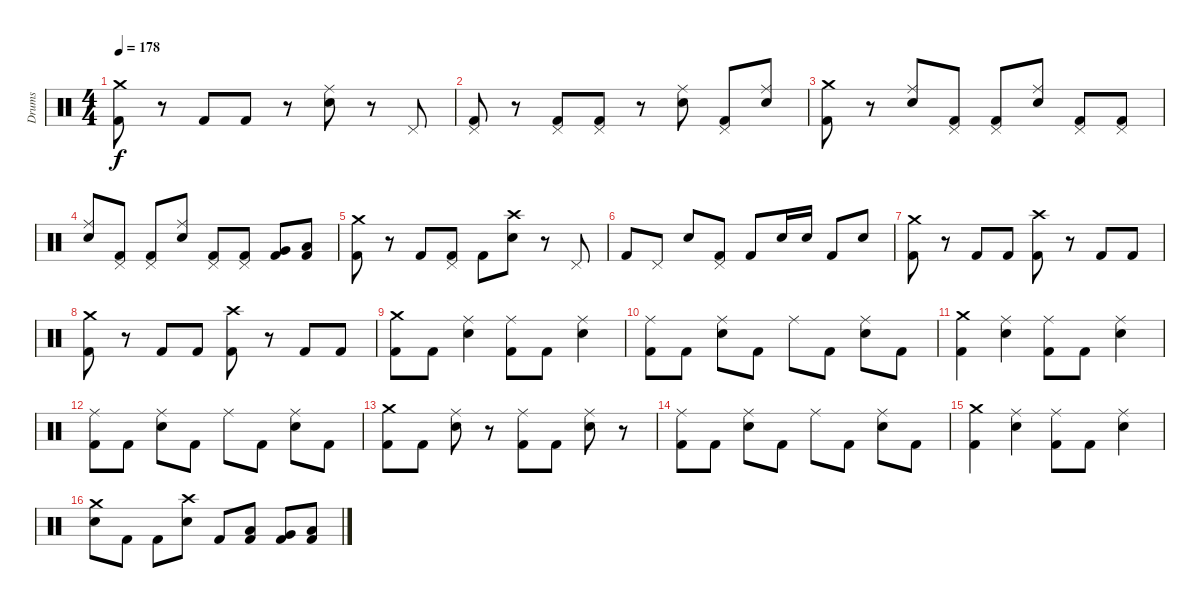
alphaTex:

\track ("Drums" "Drums") {instrument percussion}
\staff {score}
\articulation defaults
\ts (4 4)
\tempo 178
\clef neutral
\ks c
("Crash medium (hit)" "Kick (hit) 2").8{dy f} r.8 "Kick (hit) 2".8 "Kick (hit) 2".8 r.8 ("Ride (middle)" "Electric Snare (hit)").8 r.8 "Pedal Hi-Hat (hit)".8 |
("Pedal Hi-Hat (hit)" "Kick (hit) 2").8 r.8 ("Pedal Hi-Hat (hit)" "Kick (hit) 2").8 ("Pedal Hi-Hat (hit)" "Kick (hit) 2").8 r.8 ("Ride (middle)" "Electric Snare (hit)").8 ("Pedal Hi-Hat (hit)" "Kick (hit) 2").8 ("Ride (middle)" "Electric Snare (hit)").8 |
("Crash medium (hit)" "Kick (hit) 2").8 r.8 ("Ride (middle)" "Electric Snare (hit)").8 ("Pedal Hi-Hat (hit)" "Kick (hit) 2").8 ("Pedal Hi-Hat (hit)" "Kick (hit) 2").8 ("Ride (middle)" "Electric Snare (hit)").8 ("Pedal Hi-Hat (hit)" "Kick (hit) 2").8 ("Pedal Hi-Hat (hit)" "Kick (hit) 2").8 |
("Ride (middle)" "Electric Snare (hit)").8 ("Pedal Hi-Hat (hit)" "Kick (hit) 2").8 ("Pedal Hi-Hat (hit)" "Kick (hit) 2").8 ("Ride (middle)" "Electric Snare (hit)").8 ("Pedal Hi-Hat (hit)" "Kick (hit) 2").8 ("Pedal Hi-Hat (hit)" "Kick (hit) 2").8 ("Very Low Tom (hit)" "Kick (hit) 2").8 ("Low Floor Tom (hit)" "Kick (hit) 2").8 |
("Crash medium (hit)" "Kick (hit) 2").8 r.8 "Kick (hit) 2".8 ("Pedal Hi-Hat (hit)" "Kick (hit) 2").8 "Kick (hit) 2".8 ("Crash high (hit)" "Electric Snare (hit)").8 r.8 "Pedal Hi-Hat (hit)".8 |
"Kick (hit) 2".8 "Pedal Hi-Hat (hit)".8 "Electric Snare (hit)".8 ("Pedal Hi-Hat (hit)" "Kick (hit) 2").8 "Kick (hit) 2".8 "Electric Snare (hit)".16 "Electric Snare (hit)".16 "Kick (hit) 2".8 "Electric Snare (hit)".8 |
("Crash medium (hit)" "Kick (hit) 2").8 r.8 "Kick (hit) 2".8 "Kick (hit) 2".8 ("Crash high (hit)" "Kick (hit) 2").8 r.8 "Kick (hit) 2".8 "Kick (hit) 2".8 |
("Crash medium (hit)" "Kick (hit) 2").8 r.8 "Kick (hit) 2".8 "Kick (hit) 2".8 ("Crash high (hit)" "Kick (hit) 2").8 r.8 "Kick (hit) 2".8 "Kick (hit) 2".8 |
\section ("" "")
("Crash medium (hit)" "Kick (hit) 2").8 "Kick (hit) 2".8 ("Ride (middle)" "Electric Snare (hit)").4 ("Ride (middle)" "Kick (hit) 2").8 "Kick (hit) 2".8 ("Ride (middle)" "Electric Snare (hit)").4 |
("Ride (middle)" "Kick (hit) 2").8 "Kick (hit) 2".8 ("Ride (middle)" "Electric Snare (hit)").8 "Kick (hit) 2".8 "Ride (middle)".8 "Kick (hit) 2".8 ("Ride (middle)" "Electric Snare (hit)").8 "Kick (hit) 2".8 |
("Crash medium (hit)" "Kick (hit) 2").4 ("Ride (middle)" "Electric Snare (hit)").4 ("Ride (middle)" "Kick (hit) 2").8 "Kick (hit) 2".8 ("Ride (middle)" "Electric Snare (hit)").4 |
("Ride (middle)" "Kick (hit) 2").8 "Kick (hit) 2".8 ("Ride (middle)" "Electric Snare (hit)").8 "Kick (hit) 2".8 "Ride (middle)".8 "Kick (hit) 2".8 ("Ride (middle)" "Electric Snare (hit)").8 "Kick (hit) 2".8 |
("Crash medium (hit)" "Kick (hit) 2").8 "Kick (hit) 2".8 ("Ride (middle)" "Electric Snare (hit)").8 r.8 ("Ride (middle)" "Kick (hit) 2").8 "Kick (hit) 2".8 ("Ride (middle)" "Electric Snare (hit)").8 r.8 |
("Ride (middle)" "Kick (hit) 2").8 "Kick (hit) 2".8 ("Ride (middle)" "Electric Snare (hit)").8 "Kick (hit) 2".8 "Ride (middle)".8 "Kick (hit) 2".8 ("Ride (middle)" "Electric Snare (hit)").8 "Kick (hit) 2".8 |
("Crash medium (hit)" "Kick (hit) 2").4 ("Ride (middle)" "Electric Snare (hit)").4 ("Ride (middle)" "Kick (hit) 2").8 "Kick (hit) 2".8 ("Ride (middle)" "Electric Snare (hit)").4 |
("Crash medium (hit)" "Electric Snare (hit)").8 "Kick (hit) 2".8 "Kick (hit) 2".8 ("Crash high (hit)" "Electric Snare (hit)").8 "Kick (hit) 2".8 ("Low Tom (hit)" "Kick (hit) 2").8 ("Very Low Tom (hit)" "Kick (hit) 2").8 ("Low Floor Tom (hit)" "Kick (hit) 2").8
